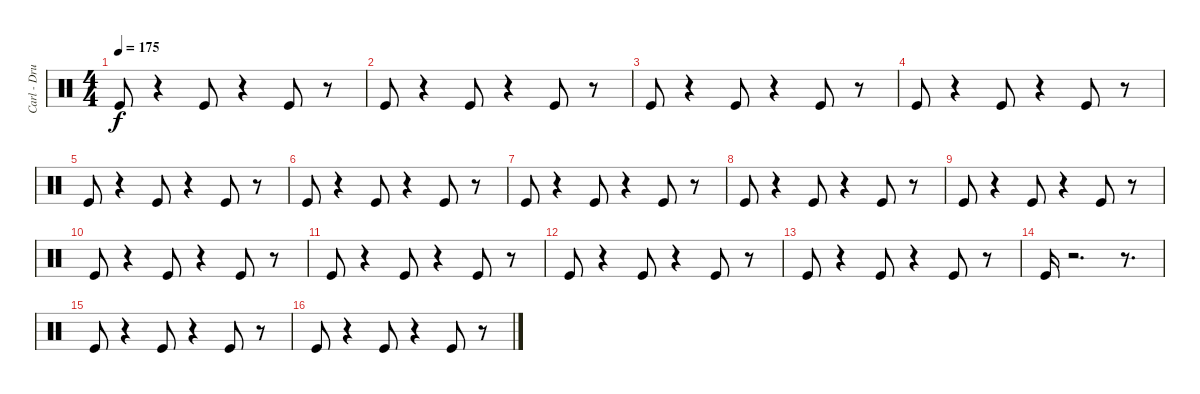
\track ("Carl - Drums I" "Carl - Dru") {instrument percussion}
\staff {score}
\articulation defaults
\ts (4 4)
\tempo 175
\clef neutral
\ks c "Kick (hit)".8{dy f}
r.4 "Kick (hit)".8 r.4 "Kick (hit)".8 r.8 |
"Kick (hit)".8 r.4 "Kick (hit)".8 r.4 "Kick (hit)".8 r.8 |
"Kick (hit)".8 r.4 "Kick (hit)".8 r.4 "Kick (hit)".8 r.8 |
"Kick (hit)".8 r.4 "Kick (hit)".8 r.4 "Kick (hit)".8 r.8 |
"Kick (hit)".8 r.4 "Kick (hit)".8 r.4 "Kick (hit)".8 r.8 |
"Kick (hit)".8 r.4 "Kick (hit)".8 r.4 "Kick (hit)".8 r.8 |
"Kick (hit)".8 r.4 "Kick (hit)".8 r.4 "Kick (hit)".8 r.8 |
"Kick (hit)".8 r.4 "Kick (hit)".8 r.4 "Kick (hit)".8 r.8 |
"Kick (hit)".8 r.4 "Kick (hit)".8 r.4 "Kick (hit)".8 r.8 |
"Kick (hit)".8 r.4 "Kick (hit)".8 r.4 "Kick (hit)".8 r.8 |
"Kick (hit)".8 r.4 "Kick (hit)".8 r.4 "Kick (hit)".8 r.8 |
"Kick (hit)".8 r.4 "Kick (hit)".8 r.4 "Kick (hit)".8 r.8 |
"Kick (hit)".8 r.4 "Kick (hit)".8 r.4 "Kick (hit)".8 r.8 |
"Kick (hit)".16 r.2{d} r.8{d} |
"Kick (hit)".8 r.4 "Kick (hit)".8 r.4 "Kick (hit)".8 r.8 |
"Kick (hit)".8 r.4 "Kick (hit)".8 r.4 "Kick (hit)".8 r.8
